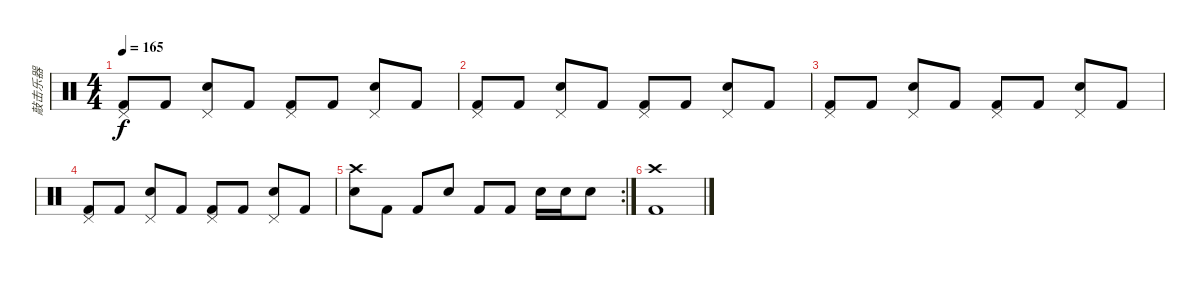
\track ("敲击乐器" "敲击乐器") {instrument percussion}
\staff {score}
\articulation defaults
\ts (4 4)
\tempo 165
\clef neutral
\ks c
("Kick (hit) 2" "Pedal Hi-Hat (hit)").8{dy f} "Kick (hit) 2".8 ("Snare (hit) 2" "Pedal Hi-Hat (hit)").8 "Kick (hit) 2".8 ("Kick (hit) 2" "Pedal Hi-Hat (hit)").8 "Kick (hit) 2".8 ("Snare (hit) 2" "Pedal Hi-Hat (hit)").8 "Kick (hit) 2".8 |
("Kick (hit) 2" "Pedal Hi-Hat (hit)").8 "Kick (hit) 2".8 ("Snare (hit) 2" "Pedal Hi-Hat (hit)").8 "Kick (hit) 2".8 ("Kick (hit) 2" "Pedal Hi-Hat (hit)").8 "Kick (hit) 2".8 ("Snare (hit) 2" "Pedal Hi-Hat (hit)").8 "Kick (hit) 2".8 |
("Kick (hit) 2" "Pedal Hi-Hat (hit)").8 "Kick (hit) 2".8 ("Snare (hit) 2" "Pedal Hi-Hat (hit)").8 "Kick (hit) 2".8 ("Kick (hit) 2" "Pedal Hi-Hat (hit)").8 "Kick (hit) 2".8 ("Snare (hit) 2" "Pedal Hi-Hat (hit)").8 "Kick (hit) 2".8 |
("Kick (hit) 2" "Pedal Hi-Hat (hit)").8 "Kick (hit) 2".8 ("Snare (hit) 2" "Pedal Hi-Hat (hit)").8 "Kick (hit) 2".8 ("Kick (hit) 2" "Pedal Hi-Hat (hit)").8 "Kick (hit) 2".8 ("Snare (hit) 2" "Pedal Hi-Hat (hit)").8 "Kick (hit) 2".8 |
\rc 2
("Snare (hit) 2" "Crash high (hit)").8 "Kick (hit) 2".8 "Kick (hit) 2".8 "Snare (hit) 2".8 "Kick (hit) 2".8 "Kick (hit) 2".8 "Snare (hit) 2".16 "Snare (hit) 2".16 "Snare (hit) 2".8 |
("Kick (hit) 2" "Crash high (hit)").1
